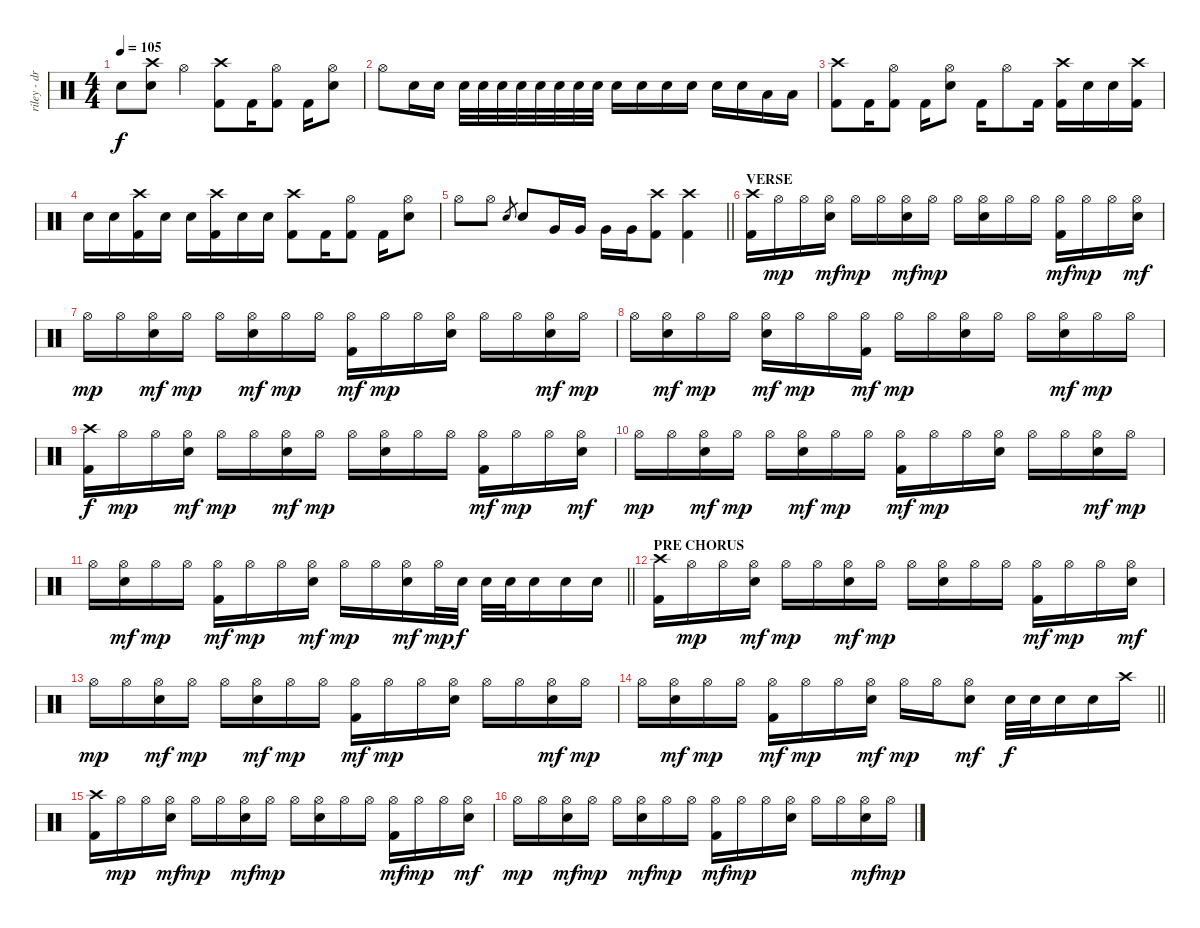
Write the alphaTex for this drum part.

\track ("riley - drums" "riley - dr") {instrument percussion}
\staff {score}
\articulation defaults
\ts (4 4)
\tempo 105
\clef neutral
\ks c "Snare (hit)"{t}.8{dy f}
("Electric Snare (hit)" "Crash high (hit)").8 "Hi-Hat (open)".4 ("Crash high (hit)" "Kick (hit) 2").8 "Kick (hit) 2".16 ("Hi-Hat (open)" "Kick (hit) 2").8 "Kick (hit) 2".16 ("Hi-Hat (open)" "Electric Snare (hit)").8 |
"Hi-Hat (open)".8 "Electric Snare (hit)".16 "Electric Snare (hit)".16 "Electric Snare (hit)".32 "Electric Snare (hit)".32 "Electric Snare (hit)".32 "Electric Snare (hit)".32 "Electric Snare (hit)".32 "Electric Snare (hit)".32 "Electric Snare (hit)".32 "Electric Snare (hit)".32 "Electric Snare (hit)".16 "Electric Snare (hit)".16 "Electric Snare (hit)".16 "Electric Snare (hit)".16 "Electric Snare (hit)".16 "Electric Snare (hit)".16 "Low Tom (hit)".16 "Low Tom (hit)".16 |
("Crash high (hit)" "Kick (hit) 2").8 "Kick (hit) 2".16 ("Hi-Hat (open)" "Kick (hit) 2").8 "Kick (hit) 2".16 ("Hi-Hat (open)" "Electric Snare (hit)").8 "Kick (hit) 2".16 "Hi-Hat (open)".8 "Kick (hit) 2".16 ("Crash high (hit)" "Kick (hit) 2").16 "Electric Snare (hit)".16 "Electric Snare (hit)".16 ("Kick (hit) 2" "Crash high (hit)").16 |
"Electric Snare (hit)".16 "Electric Snare (hit)".16 ("Kick (hit) 2" "Crash high (hit)").16 "Electric Snare (hit)".16 "Electric Snare (hit)".16 ("Crash high (hit)" "Kick (hit) 2").16 "Electric Snare (hit)".16 "Electric Snare (hit)".16 ("Crash high (hit)" "Kick (hit) 2").8 "Kick (hit) 2".16 ("Hi-Hat (open)" "Kick (hit) 2").8 "Kick (hit) 2".16 ("Hi-Hat (open)" "Electric Snare (hit)").8 |
\barLineRight lightlight "Hi-Hat (open)".8 "Hi-Hat (open)".8 "Electric Snare (hit)".8{gr} "Electric Snare (hit)".8 "Very Low Tom (hit)".16 "Very Low Tom (hit)".16 "Very Low Tom (hit)".16 "Very Low Tom (hit)".16
("Kick (hit) 2" "Crash high (hit)").8 ("Kick (hit) 2" "Crash high (hit)").4 |
\section ("" "VERSE")
("Kick (hit) 2" "Crash high (hit)").16 "Hi-Hat (open)".16{dy mp} "Hi-Hat (open)".16 ("Electric Snare (hit)" "Hi-Hat (open)").16{dy mf} "Hi-Hat (open)".16{dy mp} "Hi-Hat (open)".16 ("Electric Snare (hit)" "Hi-Hat (open)").16{dy mf} "Hi-Hat (open)".16{dy mp} "Hi-Hat (open)".16 ("Electric Snare (hit)" "Hi-Hat (open)").16 "Hi-Hat (open)".16 "Hi-Hat (open)".16 ("Kick (hit) 2" "Hi-Hat (open)").16{dy mf} "Hi-Hat (open)".16{dy mp} "Hi-Hat (open)".16 ("Electric Snare (hit)" "Hi-Hat (open)").16{dy mf} |
"Hi-Hat (open)".16{dy mp} "Hi-Hat (open)".16 ("Electric Snare (hit)" "Hi-Hat (open)").16{dy mf} "Hi-Hat (open)".16{dy mp} "Hi-Hat (open)".16 ("Electric Snare (hit)" "Hi-Hat (open)").16{dy mf} "Hi-Hat (open)".16{dy mp} "Hi-Hat (open)".16 ("Kick (hit) 2" "Hi-Hat (open)").16{dy mf} "Hi-Hat (open)".16{dy mp} "Hi-Hat (open)".16 ("Electric Snare (hit)" "Hi-Hat (open)").16 "Hi-Hat (open)".16 "Hi-Hat (open)".16 ("Electric Snare (hit)" "Hi-Hat (open)").16{dy mf} "Hi-Hat (open)".16{dy mp} |
"Hi-Hat (open)".16 ("Electric Snare (hit)" "Hi-Hat (open)").16{dy mf} "Hi-Hat (open)".16{dy mp} "Hi-Hat (open)".16 ("Electric Snare (hit)" "Hi-Hat (open)").16{dy mf} "Hi-Hat (open)".16{dy mp} "Hi-Hat (open)".16 ("Kick (hit) 2" "Hi-Hat (open)").16{dy mf} "Hi-Hat (open)".16{dy mp} "Hi-Hat (open)".16 ("Electric Snare (hit)" "Hi-Hat (open)").16 "Hi-Hat (open)".16 "Hi-Hat (open)".16 ("Electric Snare (hit)" "Hi-Hat (open)").16{dy mf} "Hi-Hat (open)".16{dy mp} "Hi-Hat (open)".16 |
("Kick (hit) 2" "Crash high (hit)").16{dy f} "Hi-Hat (open)".16{dy mp} "Hi-Hat (open)".16 ("Electric Snare (hit)" "Hi-Hat (open)").16{dy mf} "Hi-Hat (open)".16{dy mp} "Hi-Hat (open)".16 ("Electric Snare (hit)" "Hi-Hat (open)").16{dy mf} "Hi-Hat (open)".16{dy mp} "Hi-Hat (open)".16 ("Electric Snare (hit)" "Hi-Hat (open)").16 "Hi-Hat (open)".16 "Hi-Hat (open)".16 ("Kick (hit) 2" "Hi-Hat (open)").16{dy mf} "Hi-Hat (open)".16{dy mp} "Hi-Hat (open)".16 ("Electric Snare (hit)" "Hi-Hat (open)").16{dy mf} |
"Hi-Hat (open)".16{dy mp} "Hi-Hat (open)".16 ("Electric Snare (hit)" "Hi-Hat (open)").16{dy mf} "Hi-Hat (open)".16{dy mp} "Hi-Hat (open)".16 ("Electric Snare (hit)" "Hi-Hat (open)").16{dy mf} "Hi-Hat (open)".16{dy mp} "Hi-Hat (open)".16 ("Kick (hit) 2" "Hi-Hat (open)").16{dy mf} "Hi-Hat (open)".16{dy mp} "Hi-Hat (open)".16 ("Electric Snare (hit)" "Hi-Hat (open)").16 "Hi-Hat (open)".16 "Hi-Hat (open)".16 ("Electric Snare (hit)" "Hi-Hat (open)").16{dy mf} "Hi-Hat (open)".16{dy mp} |
\barLineRight lightlight "Hi-Hat (open)".16
("Electric Snare (hit)" "Hi-Hat (open)").16{dy mf} "Hi-Hat (open)".16{dy mp} "Hi-Hat (open)".16 ("Kick (hit) 2" "Hi-Hat (open)").16{dy mf} "Hi-Hat (open)".16{dy mp} "Hi-Hat (open)".16 ("Electric Snare (hit)" "Hi-Hat (open)").16{dy mf} "Hi-Hat (open)".16{dy mp} "Hi-Hat (open)".16 ("Electric Snare (hit)" "Hi-Hat (open)").16{dy mf} "Hi-Hat (open)".32{dy mp} "Electric Snare (hit)".32{dy f} "Electric Snare (hit)".32 "Electric Snare (hit)".32 "Electric Snare (hit)".16 "Electric Snare (hit)".16 "Electric Snare (hit)".16 |
\section ("" "PRE CHORUS")
("Kick (hit) 2" "Crash high (hit)").16 "Hi-Hat (open)".16{dy mp} "Hi-Hat (open)".16 ("Electric Snare (hit)" "Hi-Hat (open)").16{dy mf} "Hi-Hat (open)".16{dy mp} "Hi-Hat (open)".16 ("Electric Snare (hit)" "Hi-Hat (open)").16{dy mf} "Hi-Hat (open)".16{dy mp} "Hi-Hat (open)".16 ("Electric Snare (hit)" "Hi-Hat (open)").16 "Hi-Hat (open)".16 "Hi-Hat (open)".16 ("Kick (hit) 2" "Hi-Hat (open)").16{dy mf} "Hi-Hat (open)".16{dy mp} "Hi-Hat (open)".16 ("Electric Snare (hit)" "Hi-Hat (open)").16{dy mf} |
"Hi-Hat (open)".16{dy mp} "Hi-Hat (open)".16 ("Electric Snare (hit)" "Hi-Hat (open)").16{dy mf} "Hi-Hat (open)".16{dy mp} "Hi-Hat (open)".16 ("Electric Snare (hit)" "Hi-Hat (open)").16{dy mf} "Hi-Hat (open)".16{dy mp} "Hi-Hat (open)".16 ("Kick (hit) 2" "Hi-Hat (open)").16{dy mf} "Hi-Hat (open)".16{dy mp} "Hi-Hat (open)".16 ("Electric Snare (hit)" "Hi-Hat (open)").16 "Hi-Hat (open)".16 "Hi-Hat (open)".16 ("Electric Snare (hit)" "Hi-Hat (open)").16{dy mf} "Hi-Hat (open)".16{dy mp} |
\barLineRight lightlight "Hi-Hat (open)".16
("Electric Snare (hit)" "Hi-Hat (open)").16{dy mf} "Hi-Hat (open)".16{dy mp} "Hi-Hat (open)".16 ("Kick (hit) 2" "Hi-Hat (open)").16{dy mf} "Hi-Hat (open)".16{dy mp} "Hi-Hat (open)".16 ("Electric Snare (hit)" "Hi-Hat (open)").16{dy mf} "Hi-Hat (open)".16{dy mp} "Hi-Hat (open)".16 ("Electric Snare (hit)" "Hi-Hat (open)").8{dy mf} "Electric Snare (hit)".32{dy f} "Electric Snare (hit)".32 "Electric Snare (hit)".16 "Electric Snare (hit)".16 "Crash high (hit)".16 |
("Kick (hit) 2" "Crash high (hit)").16 "Hi-Hat (open)".16{dy mp} "Hi-Hat (open)".16 ("Electric Snare (hit)" "Hi-Hat (open)").16{dy mf} "Hi-Hat (open)".16{dy mp} "Hi-Hat (open)".16 ("Electric Snare (hit)" "Hi-Hat (open)").16{dy mf} "Hi-Hat (open)".16{dy mp} "Hi-Hat (open)".16 ("Electric Snare (hit)" "Hi-Hat (open)").16 "Hi-Hat (open)".16 "Hi-Hat (open)".16 ("Kick (hit) 2" "Hi-Hat (open)").16{dy mf} "Hi-Hat (open)".16{dy mp} "Hi-Hat (open)".16 ("Electric Snare (hit)" "Hi-Hat (open)").16{dy mf} |
"Hi-Hat (open)".16{dy mp} "Hi-Hat (open)".16 ("Electric Snare (hit)" "Hi-Hat (open)").16{dy mf} "Hi-Hat (open)".16{dy mp} "Hi-Hat (open)".16 ("Electric Snare (hit)" "Hi-Hat (open)").16{dy mf} "Hi-Hat (open)".16{dy mp} "Hi-Hat (open)".16 ("Kick (hit) 2" "Hi-Hat (open)").16{dy mf} "Hi-Hat (open)".16{dy mp} "Hi-Hat (open)".16 ("Electric Snare (hit)" "Hi-Hat (open)").16 "Hi-Hat (open)".16 "Hi-Hat (open)".16 ("Electric Snare (hit)" "Hi-Hat (open)").16{dy mf} "Hi-Hat (open)".16{dy mp}
